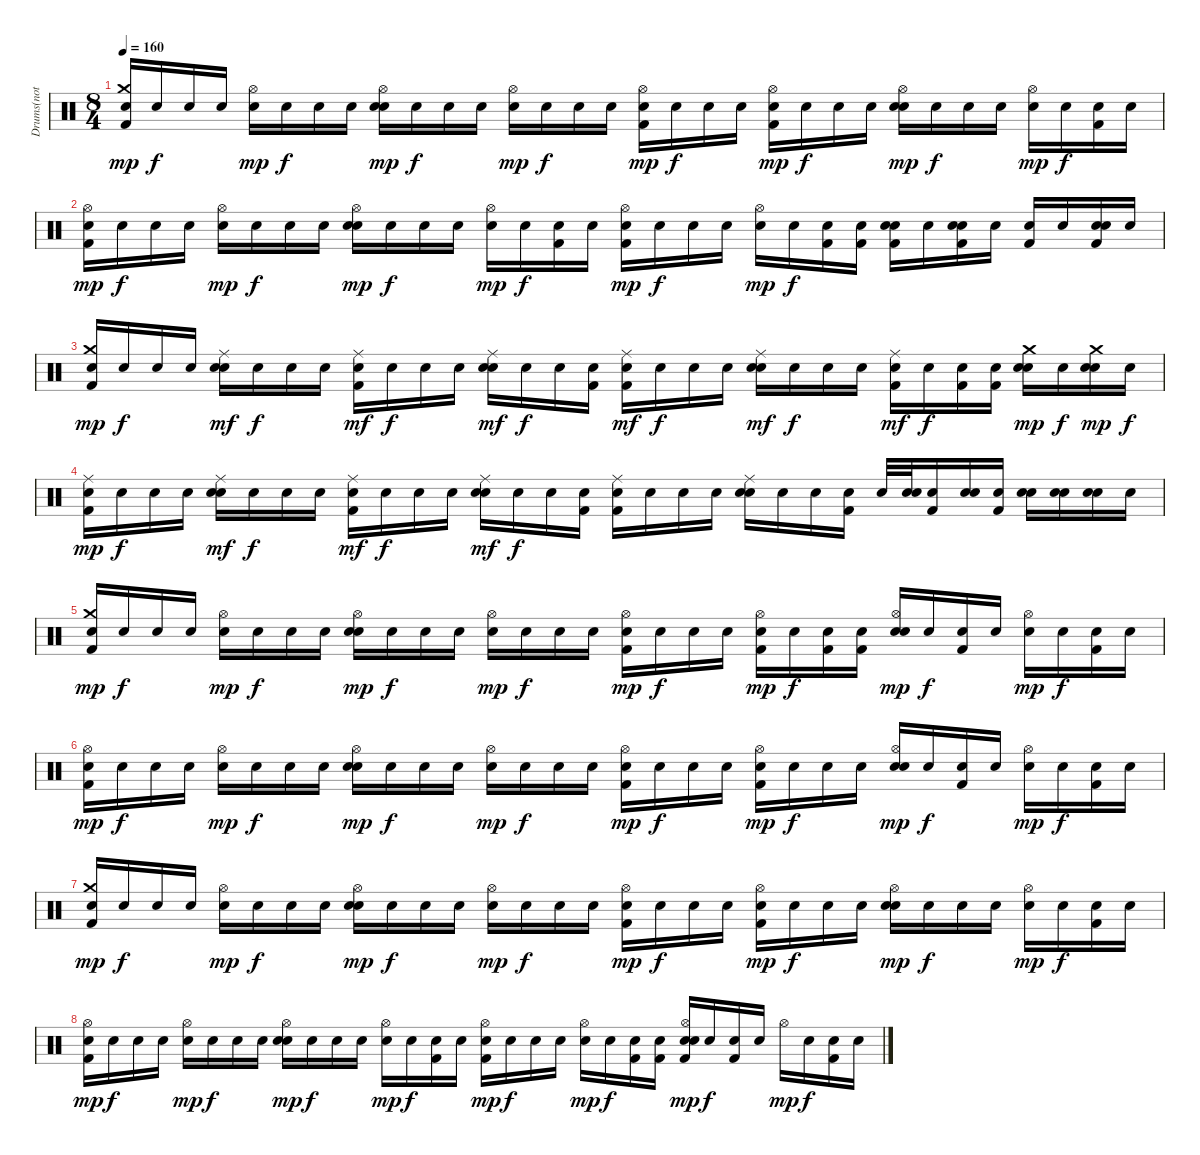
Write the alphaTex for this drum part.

\track ("Drums(not correct)" "Drums(not ") {instrument percussion}
\staff {score}
\articulation defaults
\ts (8 4)
\tempo 160
\clef neutral
\ks c
("Snare (hit)"{x} "Crash medium (hit)" "Kick (hit) 2").16{dy mp} "Snare (hit)"{x}.16{dy f} "Snare (hit)"{x}.16 "Snare (hit)"{x}.16 ("Snare (hit)"{x} "Hi-Hat (open)").16{dy mp} "Snare (hit)"{x}.16{dy f} "Snare (hit)"{x}.16 "Snare (hit)"{x}.16 ("Snare (hit)"{x} "Hi-Hat (open)" "Electric Snare (hit)").16{dy mp} "Snare (hit)"{x}.16{dy f} "Snare (hit)"{x}.16 "Snare (hit)"{x}.16 ("Snare (hit)"{x} "Hi-Hat (open)").16{dy mp} "Snare (hit)"{x}.16{dy f} "Snare (hit)"{x}.16 "Snare (hit)"{x}.16 ("Snare (hit)"{x} "Hi-Hat (open)" "Kick (hit) 2").16{dy mp} "Snare (hit)"{x}.16{dy f} "Snare (hit)"{x}.16 "Snare (hit)"{x}.16 ("Snare (hit)"{x} "Hi-Hat (open)" "Kick (hit) 2").16{dy mp} "Snare (hit)"{x}.16{dy f} "Snare (hit)"{x}.16 "Snare (hit)"{x}.16 ("Snare (hit)"{x} "Hi-Hat (open)" "Electric Snare (hit)").16{dy mp} "Snare (hit)"{x}.16{dy f} "Snare (hit)"{x}.16 "Snare (hit)"{x}.16 ("Snare (hit)"{x} "Hi-Hat (open)").16{dy mp} "Snare (hit)"{x}.16{dy f} ("Snare (hit)"{x} "Kick (hit) 2").16 "Snare (hit)"{x}.16 |
("Snare (hit)"{x} "Hi-Hat (open)" "Kick (hit) 2").16{dy mp} "Snare (hit)"{x}.16{dy f} "Snare (hit)"{x}.16 "Snare (hit)"{x}.16 ("Snare (hit)"{x} "Hi-Hat (open)").16{dy mp} "Snare (hit)"{x}.16{dy f} "Snare (hit)"{x}.16 "Snare (hit)"{x}.16 ("Snare (hit)"{x} "Hi-Hat (open)" "Electric Snare (hit)").16{dy mp} "Snare (hit)"{x}.16{dy f} "Snare (hit)"{x}.16 "Snare (hit)"{x}.16 ("Snare (hit)"{x} "Hi-Hat (open)").16{dy mp} "Snare (hit)"{x}.16{dy f} ("Snare (hit)"{x} "Kick (hit) 2").16 "Snare (hit)"{x}.16 ("Snare (hit)"{x} "Hi-Hat (open)" "Kick (hit) 2").16{dy mp} "Snare (hit)"{x}.16{dy f} "Snare (hit)"{x}.16 "Snare (hit)"{x}.16 ("Snare (hit)"{x} "Hi-Hat (open)").16{dy mp} "Snare (hit)"{x}.16{dy f} ("Snare (hit)"{x} "Kick (hit) 2").16 ("Snare (hit)"{x} "Kick (hit) 2").16 ("Snare (hit)"{x} "Electric Snare (hit)" "Kick (hit) 2").16 "Snare (hit)"{x}.16 ("Snare (hit)"{x} "Electric Snare (hit)" "Kick (hit) 2").16 "Snare (hit)"{x}.16 ("Electric Snare (hit)" "Kick (hit) 2").16 "Snare (hit)"{x}.16 ("Snare (hit)"{x} "Electric Snare (hit)" "Kick (hit) 2").16 "Snare (hit)"{x}.16 |
("Snare (hit)"{x} "Crash medium (hit)" "Kick (hit) 2").16{dy mp} "Snare (hit)"{x}.16{dy f} "Snare (hit)"{x}.16 "Snare (hit)"{x}.16 ("Snare (hit)"{x} "Ride (middle)" "Electric Snare (hit)").16{dy mf} "Snare (hit)"{x}.16{dy f} "Snare (hit)"{x}.16 "Snare (hit)"{x}.16 ("Snare (hit)"{x} "Ride (middle)" "Kick (hit) 2").16{dy mf} "Snare (hit)"{x}.16{dy f} "Snare (hit)"{x}.16 "Snare (hit)"{x}.16 ("Snare (hit)"{x} "Ride (middle)" "Electric Snare (hit)").16{dy mf} "Snare (hit)"{x}.16{dy f} "Snare (hit)"{x}.16 ("Snare (hit)"{x} "Kick (hit) 2").16 ("Snare (hit)"{x} "Ride (middle)" "Kick (hit) 2").16{dy mf} "Snare (hit)"{x}.16{dy f} "Snare (hit)"{x}.16 "Snare (hit)"{x}.16 ("Snare (hit)"{x} "Ride (middle)" "Electric Snare (hit)").16{dy mf} "Snare (hit)"{x}.16{dy f} "Snare (hit)"{x}.16 "Snare (hit)"{x}.16 ("Snare (hit)"{x} "Ride (middle)" "Kick (hit) 2").16{dy mf} "Snare (hit)"{x}.16{dy f} ("Snare (hit)"{x} "Kick (hit) 2").16 ("Snare (hit)"{x} "Kick (hit) 2").16 ("Snare (hit)"{x} "Crash medium (hit)" "Electric Snare (hit)").16{dy mp} "Snare (hit)"{x}.16{dy f} ("Snare (hit)"{x} "Crash medium (hit)" "Electric Snare (hit)").16{dy mp} "Snare (hit)"{x}.16{dy f} |
("Snare (hit)"{x} "Ride (middle)" "Kick (hit) 2").16{dy mp} "Snare (hit)"{x}.16{dy f} "Snare (hit)"{x}.16 "Snare (hit)"{x}.16 ("Snare (hit)"{x} "Ride (middle)" "Electric Snare (hit)").16{dy mf} "Snare (hit)"{x}.16{dy f} "Snare (hit)"{x}.16 "Snare (hit)"{x}.16 ("Snare (hit)"{x} "Ride (middle)" "Kick (hit) 2").16{dy mf} "Snare (hit)"{x}.16{dy f} "Snare (hit)"{x}.16 "Snare (hit)"{x}.16 ("Snare (hit)"{x} "Ride (middle)" "Electric Snare (hit)").16{dy mf} "Snare (hit)"{x}.16{dy f} "Snare (hit)"{x}.16 ("Snare (hit)"{x} "Kick (hit) 2").16 ("Snare (hit)"{x} "Ride (middle)" "Kick (hit) 2").16 "Snare (hit)"{x}.16 "Snare (hit)"{x}.16 "Snare (hit)"{x}.16 ("Snare (hit)"{x} "Ride (middle)" "Electric Snare (hit)").16 "Snare (hit)"{x}.16 "Snare (hit)"{x}.16 ("Snare (hit)"{x} "Kick (hit) 2").16 "Electric Snare (hit)".32 ("Snare (hit)"{x} "Electric Snare (hit)").32 ("Snare (hit)"{x} "Kick (hit) 2").16 ("Snare (hit)"{x} "Electric Snare (hit)").16 ("Snare (hit)"{x} "Kick (hit) 2").16 ("Snare (hit)"{x} "Electric Snare (hit)").16 ("Snare (hit)"{x} "Electric Snare (hit)").16 ("Snare (hit)"{x} "Electric Snare (hit)").16 "Electric Snare (hit)".16 |
("Snare (hit)"{x} "Crash medium (hit)" "Kick (hit) 2").16{dy mp} "Snare (hit)"{x}.16{dy f} "Snare (hit)"{x}.16 "Snare (hit)"{x}.16 ("Snare (hit)"{x} "Hi-Hat (open)").16{dy mp} "Snare (hit)"{x}.16{dy f} "Snare (hit)"{x}.16 "Snare (hit)"{x}.16 ("Snare (hit)"{x} "Hi-Hat (open)" "Electric Snare (hit)").16{dy mp} "Snare (hit)"{x}.16{dy f} "Snare (hit)"{x}.16 "Snare (hit)"{x}.16 ("Snare (hit)"{x} "Hi-Hat (open)").16{dy mp} "Snare (hit)"{x}.16{dy f} "Snare (hit)"{x}.16 "Snare (hit)"{x}.16 ("Snare (hit)"{x} "Hi-Hat (open)" "Kick (hit) 2").16{dy mp} "Snare (hit)"{x}.16{dy f} "Snare (hit)"{x}.16 "Snare (hit)"{x}.16 ("Snare (hit)"{x} "Hi-Hat (open)" "Kick (hit) 2").16{dy mp} "Snare (hit)"{x}.16{dy f} ("Snare (hit)"{x} "Kick (hit) 2").16 ("Snare (hit)"{x} "Kick (hit) 2").16 ("Snare (hit)"{x} "Hi-Hat (open)" "Electric Snare (hit)").16{dy mp} "Snare (hit)"{x}.16{dy f} ("Snare (hit)"{x} "Kick (hit) 2").16 "Snare (hit)"{x}.16 ("Snare (hit)"{x} "Hi-Hat (open)").16{dy mp} "Snare (hit)"{x}.16{dy f} ("Snare (hit)"{x} "Kick (hit) 2").16 "Snare (hit)"{x}.16 |
("Snare (hit)"{x} "Hi-Hat (open)" "Kick (hit) 2").16{dy mp} "Snare (hit)"{x}.16{dy f} "Snare (hit)"{x}.16 "Snare (hit)"{x}.16 ("Snare (hit)"{x} "Hi-Hat (open)").16{dy mp} "Snare (hit)"{x}.16{dy f} "Snare (hit)"{x}.16 "Snare (hit)"{x}.16 ("Snare (hit)"{x} "Hi-Hat (open)" "Electric Snare (hit)").16{dy mp} "Snare (hit)"{x}.16{dy f} "Snare (hit)"{x}.16 "Snare (hit)"{x}.16 ("Snare (hit)"{x} "Hi-Hat (open)").16{dy mp} "Snare (hit)"{x}.16{dy f} "Snare (hit)"{x}.16 "Snare (hit)"{x}.16 ("Snare (hit)"{x} "Hi-Hat (open)" "Kick (hit) 2").16{dy mp} "Snare (hit)"{x}.16{dy f} "Snare (hit)"{x}.16 "Snare (hit)"{x}.16 ("Snare (hit)"{x} "Hi-Hat (open)" "Kick (hit) 2").16{dy mp} "Snare (hit)"{x}.16{dy f} "Snare (hit)"{x}.16 "Snare (hit)"{x}.16 ("Snare (hit)"{x} "Hi-Hat (open)" "Electric Snare (hit)").16{dy mp} "Snare (hit)"{x}.16{dy f} ("Snare (hit)"{x} "Kick (hit) 2").16 "Snare (hit)"{x}.16 ("Snare (hit)"{x} "Hi-Hat (open)").16{dy mp} "Snare (hit)"{x}.16{dy f} ("Snare (hit)"{x} "Kick (hit) 2").16 "Snare (hit)"{x}.16 |
("Snare (hit)"{x} "Crash medium (hit)" "Kick (hit) 2").16{dy mp} "Snare (hit)"{x}.16{dy f} "Snare (hit)"{x}.16 "Snare (hit)"{x}.16 ("Snare (hit)"{x} "Hi-Hat (open)").16{dy mp} "Snare (hit)"{x}.16{dy f} "Snare (hit)"{x}.16 "Snare (hit)"{x}.16 ("Snare (hit)"{x} "Hi-Hat (open)" "Electric Snare (hit)").16{dy mp} "Snare (hit)"{x}.16{dy f} "Snare (hit)"{x}.16 "Snare (hit)"{x}.16 ("Snare (hit)"{x} "Hi-Hat (open)").16{dy mp} "Snare (hit)"{x}.16{dy f} "Snare (hit)"{x}.16 "Snare (hit)"{x}.16 ("Snare (hit)"{x} "Hi-Hat (open)" "Kick (hit) 2").16{dy mp} "Snare (hit)"{x}.16{dy f} "Snare (hit)"{x}.16 "Snare (hit)"{x}.16 ("Snare (hit)"{x} "Hi-Hat (open)" "Kick (hit) 2").16{dy mp} "Snare (hit)"{x}.16{dy f} "Snare (hit)"{x}.16 "Snare (hit)"{x}.16 ("Snare (hit)"{x} "Hi-Hat (open)" "Electric Snare (hit)").16{dy mp} "Snare (hit)"{x}.16{dy f} "Snare (hit)"{x}.16 "Snare (hit)"{x}.16 ("Snare (hit)"{x} "Hi-Hat (open)").16{dy mp} "Snare (hit)"{x}.16{dy f} ("Snare (hit)"{x} "Kick (hit) 2").16 "Snare (hit)"{x}.16 |
("Snare (hit)"{x} "Hi-Hat (open)" "Kick (hit) 2").16{dy mp} "Snare (hit)"{x}.16{dy f} "Snare (hit)"{x}.16 "Snare (hit)"{x}.16 ("Snare (hit)"{x} "Hi-Hat (open)").16{dy mp} "Snare (hit)"{x}.16{dy f} "Snare (hit)"{x}.16 "Snare (hit)"{x}.16 ("Snare (hit)"{x} "Hi-Hat (open)" "Electric Snare (hit)").16{dy mp} "Snare (hit)"{x}.16{dy f} "Snare (hit)"{x}.16 "Snare (hit)"{x}.16 ("Snare (hit)"{x} "Hi-Hat (open)").16{dy mp} "Snare (hit)"{x}.16{dy f} ("Snare (hit)"{x} "Kick (hit) 2").16 "Snare (hit)"{x}.16 ("Snare (hit)"{x} "Hi-Hat (open)" "Kick (hit) 2").16{dy mp} "Snare (hit)"{x}.16{dy f} "Snare (hit)"{x}.16 "Snare (hit)"{x}.16 ("Snare (hit)"{x} "Hi-Hat (open)").16{dy mp} "Snare (hit)"{x}.16{dy f} ("Snare (hit)"{x} "Kick (hit) 2").16 ("Snare (hit)"{x} "Kick (hit) 2").16 ("Snare (hit)"{x} "Hi-Hat (open)" "Electric Snare (hit)" "Kick (hit) 2").16{dy mp} "Snare (hit)"{x}.16{dy f} ("Snare (hit)"{x} "Kick (hit) 2").16 "Snare (hit)"{x}.16 "Hi-Hat (open)".16{dy mp} "Snare (hit)"{x}.16{dy f} ("Snare (hit)"{x} "Kick (hit) 2").16 "Snare (hit)"{x}.16
